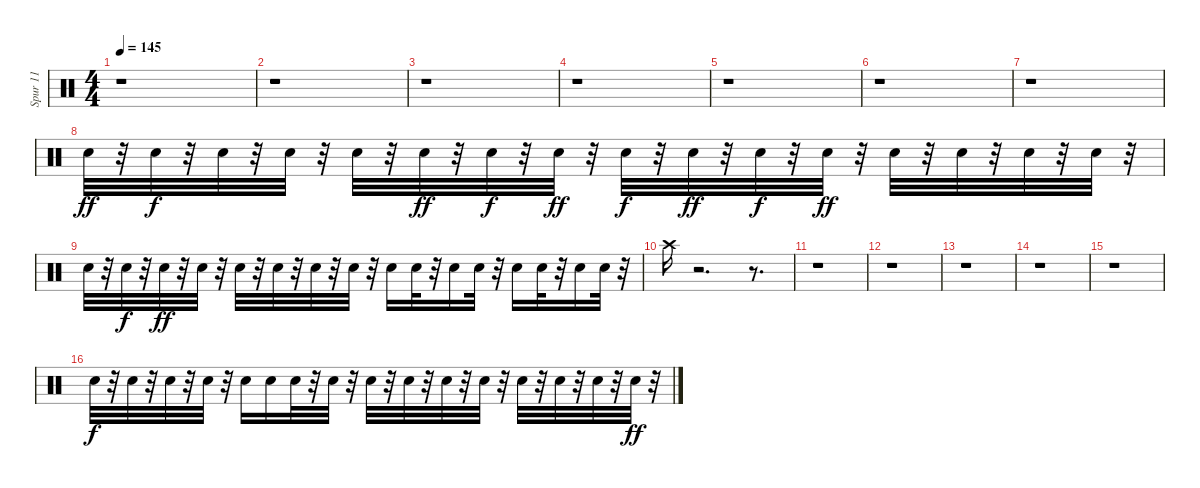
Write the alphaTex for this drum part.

\track ("Spur 11" "Spur 11") {instrument percussion}
\staff {score}
\articulation defaults
\ts (4 4)
\tempo 145
\clef neutral
\ks c
r.1{dy ff} |
r.1 |
r.1 |
r.1 |
r.1 |
r.1 |
r.1 |
"Electric Snare (hit)".32 r.32 "Electric Snare (hit)".32{dy f} r.32 "Electric Snare (hit)".32 r.32 "Electric Snare (hit)".32 r.32 "Electric Snare (hit)".32 r.32 "Electric Snare (hit)".32{dy ff} r.32 "Electric Snare (hit)".32{dy f} r.32 "Electric Snare (hit)".32{dy ff} r.32 "Electric Snare (hit)".32{dy f} r.32 "Electric Snare (hit)".32{dy ff} r.32 "Electric Snare (hit)".32{dy f} r.32 "Electric Snare (hit)".32{dy ff} r.32 "Electric Snare (hit)".32 r.32 "Electric Snare (hit)".32 r.32 "Electric Snare (hit)".32 r.32 "Electric Snare (hit)".32 r.32 |
"Electric Snare (hit)".32 r.32 "Electric Snare (hit)".32{dy f} r.32 "Electric Snare (hit)".32{dy ff} r.32 "Electric Snare (hit)".32 r.32 "Electric Snare (hit)".32 r.32 "Electric Snare (hit)".32 r.32 "Electric Snare (hit)".32 r.32 "Electric Snare (hit)".32 r.32 "Electric Snare (hit)".16 "Electric Snare (hit)".32 r.32 "Electric Snare (hit)".16 "Electric Snare (hit)".32 r.32 "Electric Snare (hit)".16 "Electric Snare (hit)".32 r.32 "Electric Snare (hit)".16 "Electric Snare (hit)".32 r.32 |
"Crash high (hit)".16 r.2{d} r.8{d} |
r.1 |
r.1 |
r.1 |
r.1 |
r.1 |
"Electric Snare (hit)".32{dy f} r.32 "Electric Snare (hit)".32 r.32 "Electric Snare (hit)".32 r.32 "Electric Snare (hit)".32 r.32 "Electric Snare (hit)".16 "Electric Snare (hit)".16 "Electric Snare (hit)".32 r.32 "Electric Snare (hit)".32 r.32 "Electric Snare (hit)".32 r.32 "Electric Snare (hit)".32 r.32 "Electric Snare (hit)".32 r.32 "Electric Snare (hit)".32 r.32 "Electric Snare (hit)".32 r.32 "Electric Snare (hit)".32 r.32 "Electric Snare (hit)".32 r.32 "Electric Snare (hit)".32{dy ff} r.32
